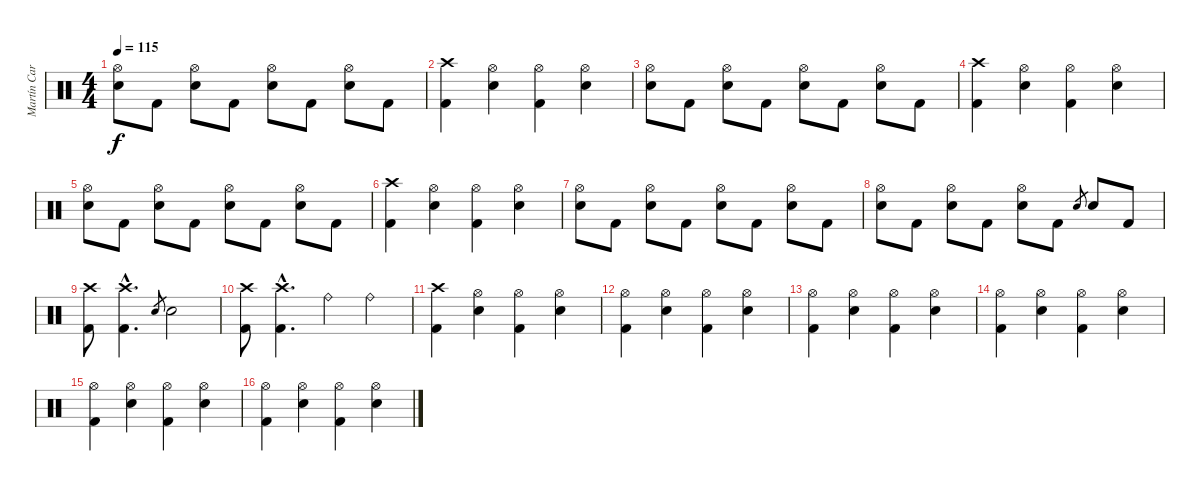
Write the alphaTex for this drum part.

\track ("Martín Carrizo" "Martín Car") {instrument percussion}
\staff {score}
\articulation defaults
\ts (4 4)
\tempo 115
\clef neutral
\ks c
("Hi-Hat (open)" "Snare (hit) 2").8{dy f} "Kick (hit) 2".8 ("Hi-Hat (open)" "Snare (hit) 2").8 "Kick (hit) 2".8 ("Hi-Hat (open)" "Snare (hit) 2").8 "Kick (hit) 2".8 ("Hi-Hat (open)" "Snare (hit) 2").8 "Kick (hit) 2".8 |
("Crash high (hit)" "Kick (hit) 2").4 ("Hi-Hat (open)" "Snare (hit) 2").4 ("Hi-Hat (open)" "Kick (hit) 2").4 ("Hi-Hat (open)" "Snare (hit) 2").4 |
("Hi-Hat (open)" "Snare (hit) 2").8 "Kick (hit) 2".8 ("Hi-Hat (open)" "Snare (hit) 2").8 "Kick (hit) 2".8 ("Hi-Hat (open)" "Snare (hit) 2").8 "Kick (hit) 2".8 ("Hi-Hat (open)" "Snare (hit) 2").8 "Kick (hit) 2".8 |
("Crash high (hit)" "Kick (hit) 2").4 ("Hi-Hat (open)" "Snare (hit) 2").4 ("Hi-Hat (open)" "Kick (hit) 2").4 ("Hi-Hat (open)" "Snare (hit) 2").4 |
("Hi-Hat (open)" "Snare (hit) 2").8 "Kick (hit) 2".8 ("Hi-Hat (open)" "Snare (hit) 2").8 "Kick (hit) 2".8 ("Hi-Hat (open)" "Snare (hit) 2").8 "Kick (hit) 2".8 ("Hi-Hat (open)" "Snare (hit) 2").8 "Kick (hit) 2".8 |
("Crash high (hit)" "Kick (hit) 2").4 ("Hi-Hat (open)" "Snare (hit) 2").4 ("Hi-Hat (open)" "Kick (hit) 2").4 ("Hi-Hat (open)" "Snare (hit) 2").4 |
("Hi-Hat (open)" "Snare (hit) 2").8 "Kick (hit) 2".8 ("Hi-Hat (open)" "Snare (hit) 2").8 "Kick (hit) 2".8 ("Hi-Hat (open)" "Snare (hit) 2").8 "Kick (hit) 2".8 ("Hi-Hat (open)" "Snare (hit) 2").8 "Kick (hit) 2".8 |
("Hi-Hat (open)" "Snare (hit) 2").8 "Kick (hit) 2".8 ("Hi-Hat (open)" "Snare (hit) 2").8 "Kick (hit) 2".8 ("Hi-Hat (open)" "Snare (hit) 2").8 "Kick (hit) 2".8 "Snare (hit) 2".8{gr} "Snare (hit) 2".8 "Kick (hit) 2".8 |
("Crash high (hit)" "Kick (hit) 2").8 ("Crash high (hit)"{hac} "Kick (hit) 2"{hac}).4{d} "Snare (hit) 2".8{gr} "Snare (hit) 2".2 |
("Crash high (hit)" "Kick (hit) 2").8 ("Crash high (hit)"{hac} "Kick (hit) 2"{hac}).4{d} "Ride (bell)".4 "Ride (bell)".4 |
("Crash high (hit)" "Kick (hit) 2").4 ("Hi-Hat (open)" "Snare (hit) 2").4 ("Hi-Hat (open)" "Kick (hit) 2").4 ("Hi-Hat (open)" "Snare (hit) 2").4 |
("Hi-Hat (open)" "Kick (hit) 2").4 ("Hi-Hat (open)" "Snare (hit) 2").4 ("Hi-Hat (open)" "Kick (hit) 2").4 ("Hi-Hat (open)" "Snare (hit) 2").4 |
("Hi-Hat (open)" "Kick (hit) 2").4 ("Hi-Hat (open)" "Snare (hit) 2").4 ("Hi-Hat (open)" "Kick (hit) 2").4 ("Hi-Hat (open)" "Snare (hit) 2").4 |
("Hi-Hat (open)" "Kick (hit) 2").4 ("Hi-Hat (open)" "Snare (hit) 2").4 ("Hi-Hat (open)" "Kick (hit) 2").4 ("Hi-Hat (open)" "Snare (hit) 2").4 |
("Hi-Hat (open)" "Kick (hit) 2").4 ("Hi-Hat (open)" "Snare (hit) 2").4 ("Hi-Hat (open)" "Kick (hit) 2").4 ("Hi-Hat (open)" "Snare (hit) 2").4 |
("Hi-Hat (open)" "Kick (hit) 2").4 ("Hi-Hat (open)" "Snare (hit) 2").4 ("Hi-Hat (open)" "Kick (hit) 2").4 ("Hi-Hat (open)" "Snare (hit) 2").4
